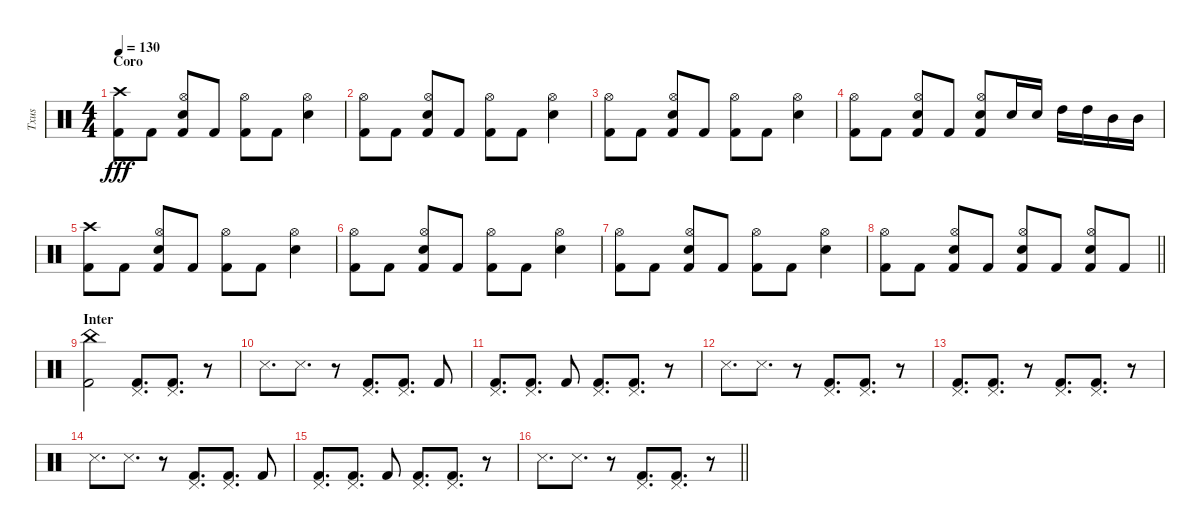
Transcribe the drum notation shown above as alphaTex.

\track ("Txus" "Txus") {instrument percussion}
\staff {score}
\articulation defaults
\ts (4 4)
\section ("" "Coro")
\tempo 130
\clef neutral
\ks c
("Crash high (hit)" "Kick (hit) 2").8{dy fff} "Kick (hit) 2".8 ("Hi-Hat (open)" "Electric Snare (hit)" "Kick (hit) 2").8 "Kick (hit) 2".8 ("Hi-Hat (open)" "Kick (hit) 2").8 "Kick (hit) 2".8 ("Hi-Hat (open)" "Electric Snare (hit)").4 |
("Hi-Hat (open)" "Kick (hit) 2").8 "Kick (hit) 2".8 ("Hi-Hat (open)" "Electric Snare (hit)" "Kick (hit) 2").8 "Kick (hit) 2".8 ("Hi-Hat (open)" "Kick (hit) 2").8 "Kick (hit) 2".8 ("Hi-Hat (open)" "Electric Snare (hit)").4 |
("Hi-Hat (open)" "Kick (hit) 2").8 "Kick (hit) 2".8 ("Hi-Hat (open)" "Electric Snare (hit)" "Kick (hit) 2").8 "Kick (hit) 2".8 ("Hi-Hat (open)" "Kick (hit) 2").8 "Kick (hit) 2".8 ("Hi-Hat (open)" "Electric Snare (hit)").4 |
("Hi-Hat (open)" "Kick (hit) 2").8 "Kick (hit) 2".8 ("Hi-Hat (open)" "Electric Snare (hit)" "Kick (hit) 2").8 "Kick (hit) 2".8 ("Hi-Hat (open)" "Electric Snare (hit)" "Kick (hit) 2").8 "Electric Snare (hit)".16 "Electric Snare (hit)".16 "High Tom (hit)".16 "High Tom (hit)".16 "Mid Tom (hit)".16 "Mid Tom (hit)".16 |
("Crash high (hit)" "Kick (hit) 2").8 "Kick (hit) 2".8 ("Hi-Hat (open)" "Electric Snare (hit)" "Kick (hit) 2").8 "Kick (hit) 2".8 ("Hi-Hat (open)" "Kick (hit) 2").8 "Kick (hit) 2".8 ("Hi-Hat (open)" "Electric Snare (hit)").4 |
("Hi-Hat (open)" "Kick (hit) 2").8 "Kick (hit) 2".8 ("Hi-Hat (open)" "Electric Snare (hit)" "Kick (hit) 2").8 "Kick (hit) 2".8 ("Hi-Hat (open)" "Kick (hit) 2").8 "Kick (hit) 2".8 ("Hi-Hat (open)" "Electric Snare (hit)").4 |
("Hi-Hat (open)" "Kick (hit) 2").8 "Kick (hit) 2".8 ("Hi-Hat (open)" "Electric Snare (hit)" "Kick (hit) 2").8 "Kick (hit) 2".8 ("Hi-Hat (open)" "Kick (hit) 2").8 "Kick (hit) 2".8 ("Hi-Hat (open)" "Electric Snare (hit)").4 |
\barLineRight lightlight
("Hi-Hat (open)" "Kick (hit) 2").8 "Kick (hit) 2".8 ("Hi-Hat (open)" "Electric Snare (hit)" "Kick (hit) 2").8 "Kick (hit) 2".8 ("Hi-Hat (open)" "Electric Snare (hit)" "Kick (hit) 2").8 "Kick (hit) 2".8 ("Hi-Hat (open)" "Electric Snare (hit)" "Kick (hit) 2").8 "Kick (hit) 2".8 |
\section ("" "Inter")
("China (hit)" "Kick (hit) 2").2 ("Pedal Hi-Hat (hit)" "Kick (hit) 2").8{d} ("Pedal Hi-Hat (hit)" "Kick (hit) 2").8{d} r.8 |
"Snare (side stick) 3".8{d} "Snare (side stick) 3".8{d} r.8 ("Pedal Hi-Hat (hit)" "Kick (hit) 2").8{d} ("Pedal Hi-Hat (hit)" "Kick (hit) 2").8{d} "Kick (hit) 2".8 |
("Pedal Hi-Hat (hit)" "Kick (hit) 2").8{d} ("Pedal Hi-Hat (hit)" "Kick (hit) 2").8{d} "Kick (hit) 2".8 ("Pedal Hi-Hat (hit)" "Kick (hit) 2").8{d} ("Pedal Hi-Hat (hit)" "Kick (hit) 2").8{d} r.8 |
"Snare (side stick) 3".8{d} "Snare (side stick) 3".8{d} r.8 ("Pedal Hi-Hat (hit)" "Kick (hit) 2").8{d} ("Pedal Hi-Hat (hit)" "Kick (hit) 2").8{d} r.8 |
("Pedal Hi-Hat (hit)" "Kick (hit) 2").8{d} ("Pedal Hi-Hat (hit)" "Kick (hit) 2").8{d} r.8 ("Pedal Hi-Hat (hit)" "Kick (hit) 2").8{d} ("Pedal Hi-Hat (hit)" "Kick (hit) 2").8{d} r.8 |
"Snare (side stick) 3".8{d} "Snare (side stick) 3".8{d} r.8 ("Pedal Hi-Hat (hit)" "Kick (hit) 2").8{d} ("Pedal Hi-Hat (hit)" "Kick (hit) 2").8{d} "Kick (hit) 2".8 |
("Pedal Hi-Hat (hit)" "Kick (hit) 2").8{d} ("Pedal Hi-Hat (hit)" "Kick (hit) 2").8{d} "Kick (hit) 2".8 ("Pedal Hi-Hat (hit)" "Kick (hit) 2").8{d} ("Pedal Hi-Hat (hit)" "Kick (hit) 2").8{d} r.8 |
\barLineRight lightlight "Snare (side stick) 3".8{d} "Snare (side stick) 3".8{d}
r.8 ("Pedal Hi-Hat (hit)" "Kick (hit) 2").8{d} ("Pedal Hi-Hat (hit)" "Kick (hit) 2").8{d} r.8
